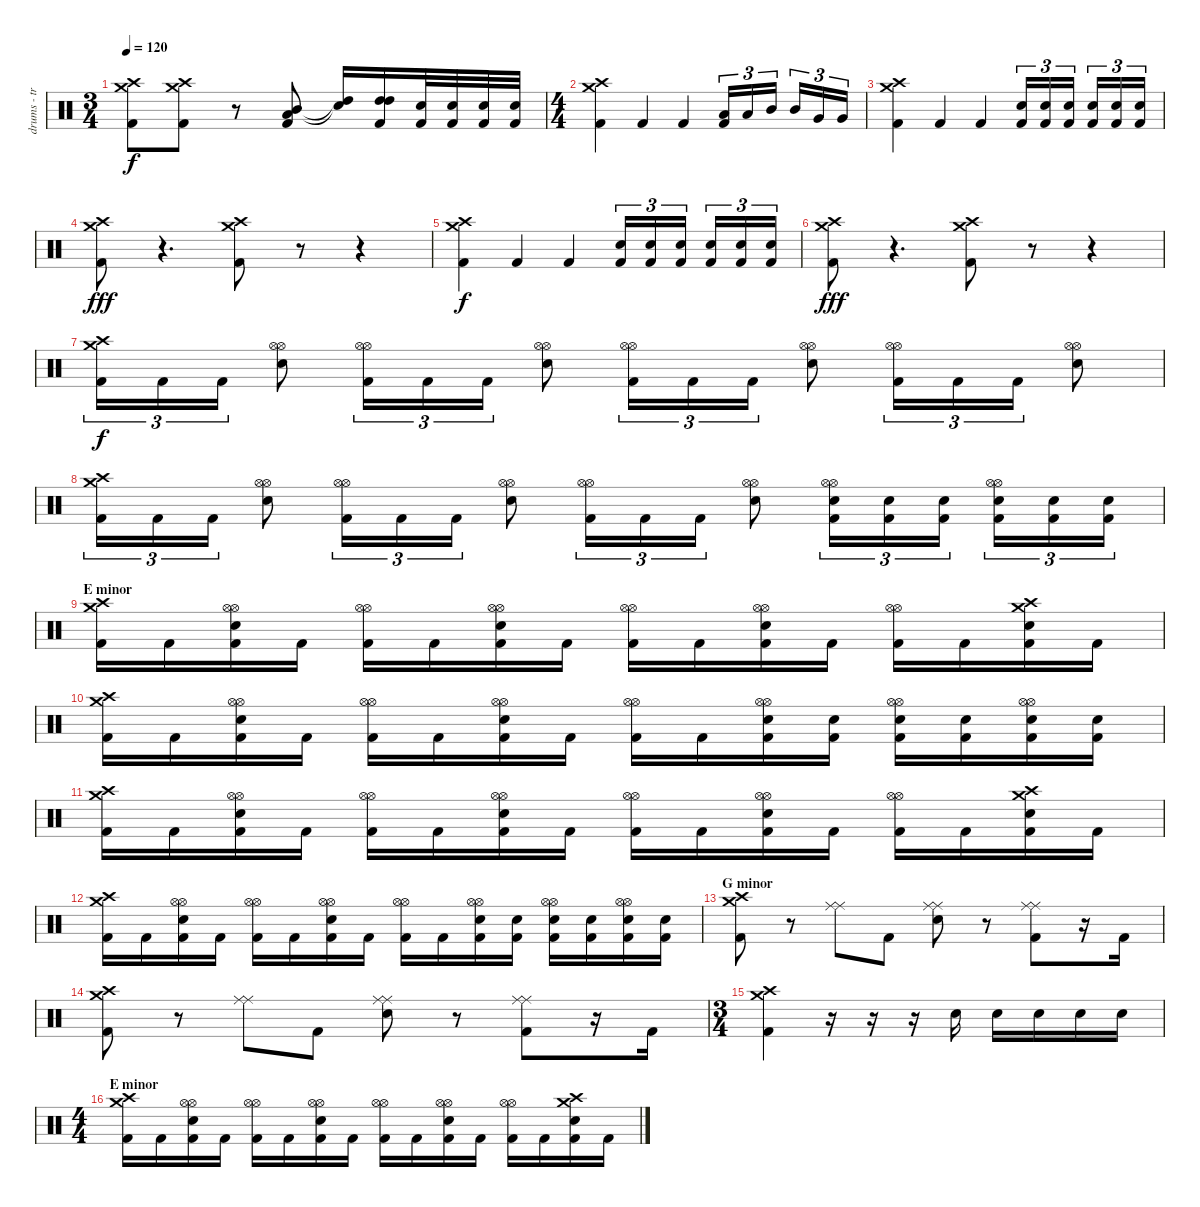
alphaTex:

\track ("drums - trash and prog sections" "drums - tr") {instrument percussion}
\staff {score}
\articulation defaults
\ts (3 4)
\tempo 120
\clef neutral
\ks c
("Crash medium (hit)" "Crash high (hit)" "Kick (hit) 2").8{dy f} ("Crash medium (hit)" "Crash high (hit)" "Kick (hit) 2").8 r.8 ("Low Tom (hit)" "Mid Tom (hit)" "Kick (hit) 2").8 ("Snare (hit)"{t} "High Tom (hit)"{t}).16 ("High Tom (hit)" "High Tom (hit)" "Kick (hit) 2").16 ("Snare (hit) 2" "Kick (hit) 2").32 ("Snare (hit) 2" "Kick (hit) 2").32 ("Snare (hit) 2" "Kick (hit) 2").32 ("Snare (hit) 2" "Kick (hit) 2").32 |
\ts (4 4)
("Crash medium (hit)" "Crash high (hit)" "Kick (hit) 2").4 "Kick (hit) 2".4 "Kick (hit) 2".4 ("Low Tom (hit)" "Kick (hit) 2").16{tu (3 2)} "Low Tom (hit)".16{tu (3 2)} "Mid Tom (hit)".16{tu (3 2)} "Mid Tom (hit)".16{tu (3 2)} "Very Low Tom (hit)".16{tu (3 2)} "Very Low Tom (hit)".16{tu (3 2)} |
("Crash medium (hit)" "Crash high (hit)" "Kick (hit) 2").4 "Kick (hit) 2".4 "Kick (hit) 2".4 ("Snare (hit) 2" "Kick (hit) 2").16{tu (3 2)} ("Snare (hit) 2" "Kick (hit) 2").16{tu (3 2)} ("Snare (hit) 2" "Kick (hit) 2").16{tu (3 2)} ("Snare (hit) 2" "Kick (hit) 2").16{tu (3 2)} ("Snare (hit) 2" "Kick (hit) 2").16{tu (3 2)} ("Snare (hit) 2" "Kick (hit) 2").16{tu (3 2)} |
("Crash medium (hit)" "Crash high (hit)" "Kick (hit) 2").8{dy fff} r.4{d} ("Crash medium (hit)" "Crash high (hit)" "Kick (hit) 2").8 r.8 r.4 |
("Crash medium (hit)" "Crash high (hit)" "Kick (hit) 2").4{dy f} "Kick (hit) 2".4 "Kick (hit) 2".4 ("Snare (hit) 2" "Kick (hit) 2").16{tu (3 2)} ("Snare (hit) 2" "Kick (hit) 2").16{tu (3 2)} ("Snare (hit) 2" "Kick (hit) 2").16{tu (3 2)} ("Snare (hit) 2" "Kick (hit) 2").16{tu (3 2)} ("Snare (hit) 2" "Kick (hit) 2").16{tu (3 2)} ("Snare (hit) 2" "Kick (hit) 2").16{tu (3 2)} |
("Crash medium (hit)" "Crash high (hit)" "Kick (hit) 2").8{dy fff} r.4{d} ("Crash medium (hit)" "Crash high (hit)" "Kick (hit) 2").8 r.8 r.4 |
("Crash medium (hit)" "Crash high (hit)" "Kick (hit) 2").16{tu (3 2) dy f} "Kick (hit) 2".16{tu (3 2)} "Kick (hit) 2".16{tu (3 2)} ("Hi-Hat (open)" "Hi-Hat (open)" "Snare (hit) 2").8 ("Hi-Hat (open)" "Hi-Hat (open)" "Kick (hit) 2").16{tu (3 2)} "Kick (hit) 2".16{tu (3 2)} "Kick (hit) 2".16{tu (3 2)} ("Hi-Hat (open)" "Hi-Hat (open)" "Snare (hit) 2").8 ("Hi-Hat (open)" "Hi-Hat (open)" "Kick (hit) 2").16{tu (3 2)} "Kick (hit) 2".16{tu (3 2)} "Kick (hit) 2".16{tu (3 2)} ("Hi-Hat (open)" "Hi-Hat (open)" "Snare (hit) 2").8 ("Hi-Hat (open)" "Hi-Hat (open)" "Kick (hit) 2").16{tu (3 2)} "Kick (hit) 2".16{tu (3 2)} "Kick (hit) 2".16{tu (3 2)} ("Hi-Hat (open)" "Hi-Hat (open)" "Snare (hit) 2").8 |
("Crash medium (hit)" "Crash high (hit)" "Kick (hit) 2").16{tu (3 2)} "Kick (hit) 2".16{tu (3 2)} "Kick (hit) 2".16{tu (3 2)} ("Hi-Hat (open)" "Hi-Hat (open)" "Snare (hit) 2").8 ("Hi-Hat (open)" "Hi-Hat (open)" "Kick (hit) 2").16{tu (3 2)} "Kick (hit) 2".16{tu (3 2)} "Kick (hit) 2".16{tu (3 2)} ("Hi-Hat (open)" "Hi-Hat (open)" "Snare (hit) 2").8 ("Hi-Hat (open)" "Hi-Hat (open)" "Kick (hit) 2").16{tu (3 2)} "Kick (hit) 2".16{tu (3 2)} "Kick (hit) 2".16{tu (3 2)} ("Hi-Hat (open)" "Hi-Hat (open)" "Snare (hit) 2").8 ("Hi-Hat (open)" "Hi-Hat (open)" "Snare (hit) 2" "Kick (hit) 2").16{tu (3 2)} ("Snare (hit) 2" "Kick (hit) 2").16{tu (3 2)} ("Snare (hit) 2" "Kick (hit) 2").16{tu (3 2)} ("Hi-Hat (open)" "Hi-Hat (open)" "Snare (hit) 2" "Kick (hit) 2").16{tu (3 2)} ("Snare (hit) 2" "Kick (hit) 2").16{tu (3 2)} ("Snare (hit) 2" "Kick (hit) 2").16{tu (3 2)} |
\section ("" "E minor")
("Crash medium (hit)" "Crash high (hit)" "Kick (hit) 2").16 "Kick (hit) 2".16 ("Hi-Hat (open)" "Hi-Hat (open)" "Snare (hit) 2" "Kick (hit) 2").16 "Kick (hit) 2".16 ("Hi-Hat (open)" "Hi-Hat (open)" "Kick (hit) 2").16 "Kick (hit) 2".16 ("Hi-Hat (open)" "Hi-Hat (open)" "Snare (hit) 2" "Kick (hit) 2").16 "Kick (hit) 2".16 ("Hi-Hat (open)" "Hi-Hat (open)" "Kick (hit) 2").16 "Kick (hit) 2".16 ("Hi-Hat (open)" "Hi-Hat (open)" "Snare (hit) 2" "Kick (hit) 2").16 "Kick (hit) 2".16 ("Hi-Hat (open)" "Hi-Hat (open)" "Kick (hit) 2").16 "Kick (hit) 2".16 ("Crash medium (hit)" "Crash high (hit)" "Snare (hit) 2" "Kick (hit) 2").16 "Kick (hit) 2".16 |
("Crash medium (hit)" "Crash high (hit)" "Kick (hit) 2").16 "Kick (hit) 2".16 ("Hi-Hat (open)" "Hi-Hat (open)" "Snare (hit) 2" "Kick (hit) 2").16 "Kick (hit) 2".16 ("Hi-Hat (open)" "Hi-Hat (open)" "Kick (hit) 2").16 "Kick (hit) 2".16 ("Hi-Hat (open)" "Hi-Hat (open)" "Snare (hit) 2" "Kick (hit) 2").16 "Kick (hit) 2".16 ("Hi-Hat (open)" "Hi-Hat (open)" "Kick (hit) 2").16 "Kick (hit) 2".16 ("Hi-Hat (open)" "Hi-Hat (open)" "Snare (hit) 2" "Kick (hit) 2").16 ("Snare (hit) 2" "Kick (hit) 2").16 ("Hi-Hat (open)" "Hi-Hat (open)" "Snare (hit) 2" "Kick (hit) 2").16 ("Snare (hit) 2" "Kick (hit) 2").16 ("Hi-Hat (open)" "Hi-Hat (open)" "Snare (hit) 2" "Kick (hit) 2").16 ("Snare (hit) 2" "Kick (hit) 2").16 |
("Crash medium (hit)" "Crash high (hit)" "Kick (hit) 2").16 "Kick (hit) 2".16 ("Hi-Hat (open)" "Hi-Hat (open)" "Snare (hit) 2" "Kick (hit) 2").16 "Kick (hit) 2".16 ("Hi-Hat (open)" "Hi-Hat (open)" "Kick (hit) 2").16 "Kick (hit) 2".16 ("Hi-Hat (open)" "Hi-Hat (open)" "Snare (hit) 2" "Kick (hit) 2").16 "Kick (hit) 2".16 ("Hi-Hat (open)" "Hi-Hat (open)" "Kick (hit) 2").16 "Kick (hit) 2".16 ("Hi-Hat (open)" "Hi-Hat (open)" "Snare (hit) 2" "Kick (hit) 2").16 "Kick (hit) 2".16 ("Hi-Hat (open)" "Hi-Hat (open)" "Kick (hit) 2").16 "Kick (hit) 2".16 ("Crash medium (hit)" "Crash high (hit)" "Snare (hit) 2" "Kick (hit) 2").16 "Kick (hit) 2".16 |
("Crash medium (hit)" "Crash high (hit)" "Kick (hit) 2").16 "Kick (hit) 2".16 ("Hi-Hat (open)" "Hi-Hat (open)" "Snare (hit) 2" "Kick (hit) 2").16 "Kick (hit) 2".16 ("Hi-Hat (open)" "Hi-Hat (open)" "Kick (hit) 2").16 "Kick (hit) 2".16 ("Hi-Hat (open)" "Hi-Hat (open)" "Snare (hit) 2" "Kick (hit) 2").16 "Kick (hit) 2".16 ("Hi-Hat (open)" "Hi-Hat (open)" "Kick (hit) 2").16 "Kick (hit) 2".16 ("Hi-Hat (open)" "Hi-Hat (open)" "Snare (hit) 2" "Kick (hit) 2").16 ("Snare (hit) 2" "Kick (hit) 2").16 ("Hi-Hat (open)" "Hi-Hat (open)" "Snare (hit) 2" "Kick (hit) 2").16 ("Snare (hit) 2" "Kick (hit) 2").16 ("Hi-Hat (open)" "Hi-Hat (open)" "Snare (hit) 2" "Kick (hit) 2").16 ("Snare (hit) 2" "Kick (hit) 2").16 |
\section ("" "G minor")
("Crash medium (hit)" "Crash high (hit)" "Kick (hit) 2").8 r.8 ("Ride (middle)" "Ride (middle)").8 "Kick (hit) 2".8 ("Ride (middle)" "Ride (middle)" "Snare (hit) 2").8 r.8 ("Ride (middle)" "Ride (middle)" "Kick (hit) 2").8 r.16 "Kick (hit) 2".16 |
("Crash medium (hit)" "Crash high (hit)" "Kick (hit) 2").8 r.8 ("Ride (middle)" "Ride (middle)").8 "Kick (hit) 2".8 ("Ride (middle)" "Ride (middle)" "Snare (hit) 2").8 r.8 ("Ride (middle)" "Ride (middle)" "Kick (hit) 2").8 r.16 "Kick (hit) 2".16 |
\ts (3 4)
("Crash medium (hit)" "Crash high (hit)" "Kick (hit) 2").4 r.16 r.16 r.16 "Snare (hit) 2".16 "Snare (hit) 2".16 "Snare (hit) 2".16 "Snare (hit) 2".16 "Snare (hit) 2".16 |
\ts (4 4)
\section ("" "E minor")
("Crash medium (hit)" "Crash high (hit)" "Kick (hit) 2").16 "Kick (hit) 2".16 ("Hi-Hat (open)" "Hi-Hat (open)" "Snare (hit) 2" "Kick (hit) 2").16 "Kick (hit) 2".16 ("Hi-Hat (open)" "Hi-Hat (open)" "Kick (hit) 2").16 "Kick (hit) 2".16 ("Hi-Hat (open)" "Hi-Hat (open)" "Snare (hit) 2" "Kick (hit) 2").16 "Kick (hit) 2".16 ("Hi-Hat (open)" "Hi-Hat (open)" "Kick (hit) 2").16 "Kick (hit) 2".16 ("Hi-Hat (open)" "Hi-Hat (open)" "Snare (hit) 2" "Kick (hit) 2").16 "Kick (hit) 2".16 ("Hi-Hat (open)" "Hi-Hat (open)" "Kick (hit) 2").16 "Kick (hit) 2".16 ("Crash medium (hit)" "Crash high (hit)" "Snare (hit) 2" "Kick (hit) 2").16 "Kick (hit) 2".16
